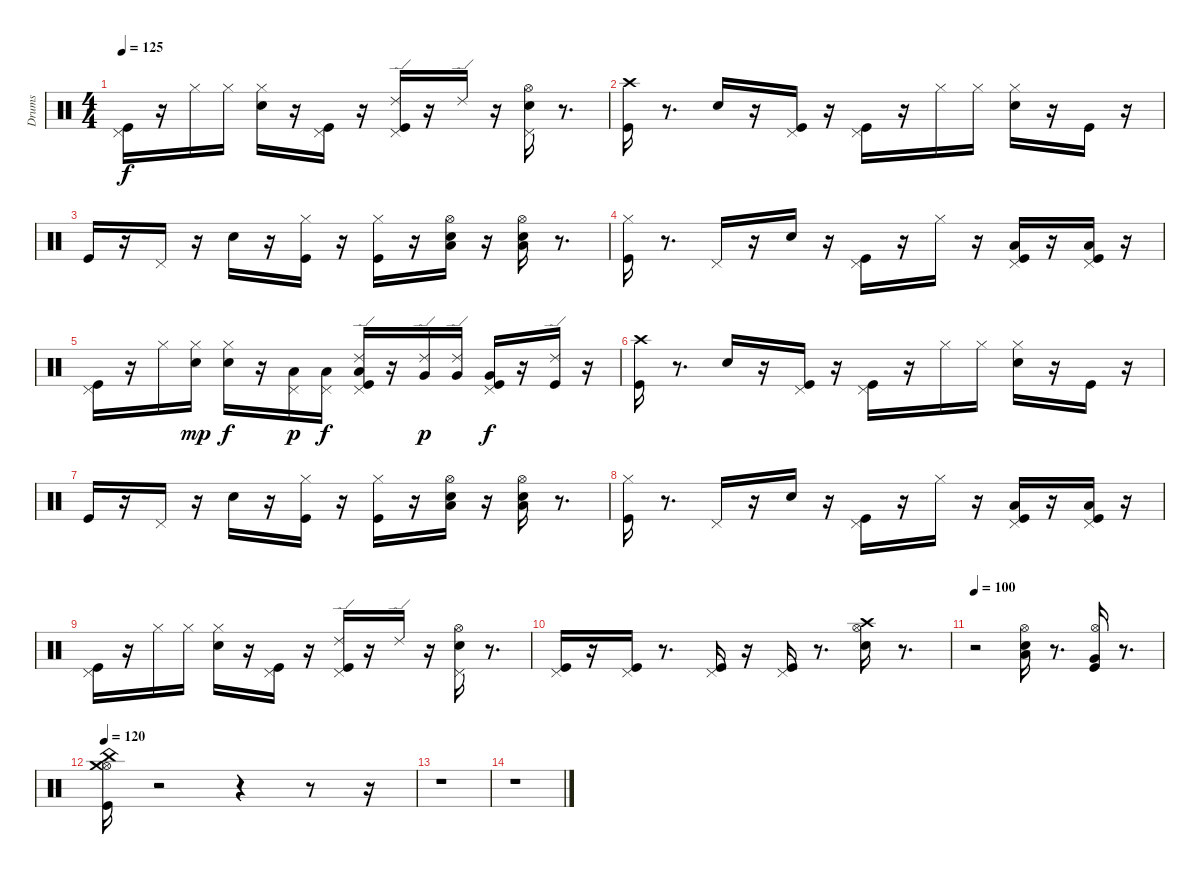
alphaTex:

\track ("Drums" "Drums") {instrument percussion}
\staff {score}
\articulation defaults
\ts (4 4)
\tempo 125
\clef neutral
\ks c
("Pedal Hi-Hat (hit)" "Kick (hit)").16{dy f} r.16 "Hi-Hat (closed)".16 "Hi-Hat (closed)".16 ("Electric Snare (hit)" "Hi-Hat (closed)").16 r.16 ("Pedal Hi-Hat (hit)" "Kick (hit)").16 r.16 ("Pedal Hi-Hat (hit)" "Kick (hit)" "Ride (edge) 2").16 r.16 "Ride (edge) 2".16 r.16 ("Hi-Hat (open)" "Pedal Hi-Hat (hit)" "Electric Snare (hit)").16 r.8{d} |
("Crash high (hit)" "Kick (hit)").16 r.8{d} "Electric Snare (hit)".16 r.16 ("Pedal Hi-Hat (hit)" "Kick (hit)").16 r.16 ("Pedal Hi-Hat (hit)" "Kick (hit)").16 r.16 "Hi-Hat (closed)".16 "Hi-Hat (closed)".16 ("Electric Snare (hit)" "Hi-Hat (closed)").16 r.16 "Kick (hit)".16 r.16 |
"Kick (hit)".16 r.16 "Pedal Hi-Hat (hit)".16 r.16 "Electric Snare (hit)".16 r.16 ("Kick (hit)" "Hi-Hat (closed)").16 r.16 ("Kick (hit)" "Hi-Hat (closed)").16 r.16 ("Hi-Hat (open)" "Low Tom (hit)" "Electric Snare (hit)").16 r.16 ("Hi-Hat (open)" "Low Tom (hit)" "Electric Snare (hit)").16 r.8{d} |
("Hi-Hat (closed)" "Kick (hit)").16 r.8{d} "Pedal Hi-Hat (hit)".16 r.16 "Electric Snare (hit)".16 r.16 ("Pedal Hi-Hat (hit)" "Kick (hit)").16 r.16 "Hi-Hat (closed)".16 r.16 ("Pedal Hi-Hat (hit)" "Kick (hit)" "Low Tom (hit)").16 r.16 ("Kick (hit)" "Pedal Hi-Hat (hit)" "Low Tom (hit)").16 r.16 |
("Pedal Hi-Hat (hit)" "Kick (hit)").16 r.16 "Hi-Hat (closed)".16 ("Electric Snare (hit)" "Hi-Hat (closed)").16{dy mp} ("Electric Snare (hit)" "Hi-Hat (closed)").16{dy f} r.16 ("Pedal Hi-Hat (hit)" "Low Tom (hit)").16{dy p} ("Pedal Hi-Hat (hit)" "Low Tom (hit)").16{dy f} ("Low Tom (hit)" "Pedal Hi-Hat (hit)" "Kick (hit)" "Ride (edge) 2").16 r.16 ("Very Low Tom (hit)" "Ride (edge) 2").16{dy p} ("Ride (edge) 2" "Very Low Tom (hit)").16 ("Kick (hit)" "Very Low Tom (hit)" "Pedal Hi-Hat (hit)").16{dy f} r.16 ("Ride (edge) 2" "Kick (hit)").16 r.16 |
("Crash high (hit)" "Kick (hit)").16 r.8{d} "Electric Snare (hit)".16 r.16 ("Pedal Hi-Hat (hit)" "Kick (hit)").16 r.16 ("Pedal Hi-Hat (hit)" "Kick (hit)").16 r.16 "Hi-Hat (closed)".16 "Hi-Hat (closed)".16 ("Electric Snare (hit)" "Hi-Hat (closed)").16 r.16 "Kick (hit)".16 r.16 |
"Kick (hit)".16 r.16 "Pedal Hi-Hat (hit)".16 r.16 "Electric Snare (hit)".16 r.16 ("Kick (hit)" "Hi-Hat (closed)").16 r.16 ("Kick (hit)" "Hi-Hat (closed)").16 r.16 ("Hi-Hat (open)" "Low Tom (hit)" "Electric Snare (hit)").16 r.16 ("Hi-Hat (open)" "Low Tom (hit)" "Electric Snare (hit)").16 r.8{d} |
("Hi-Hat (closed)" "Kick (hit)").16 r.8{d} "Pedal Hi-Hat (hit)".16 r.16 "Electric Snare (hit)".16 r.16 ("Pedal Hi-Hat (hit)" "Kick (hit)").16 r.16 "Hi-Hat (closed)".16 r.16 ("Pedal Hi-Hat (hit)" "Kick (hit)" "Low Tom (hit)").16 r.16 ("Kick (hit)" "Pedal Hi-Hat (hit)" "Low Tom (hit)").16 r.16 |
("Pedal Hi-Hat (hit)" "Kick (hit)").16 r.16 "Hi-Hat (closed)".16 "Hi-Hat (closed)".16 ("Electric Snare (hit)" "Hi-Hat (closed)").16 r.16 ("Pedal Hi-Hat (hit)" "Kick (hit)").16 r.16 ("Pedal Hi-Hat (hit)" "Kick (hit)" "Ride (edge) 2").16 r.16 "Ride (edge) 2".16 r.16 ("Hi-Hat (open)" "Pedal Hi-Hat (hit)" "Electric Snare (hit)").16 r.8{d} |
("Pedal Hi-Hat (hit)" "Kick (hit)").16 r.16 ("Pedal Hi-Hat (hit)" "Kick (hit)").16 r.8{d} ("Pedal Hi-Hat (hit)" "Kick (hit)").16 r.16 ("Pedal Hi-Hat (hit)" "Kick (hit)").16 r.8{d} ("Hi-Hat (open)" "Crash high (hit)" "Electric Snare (hit)").16 r.8{d} |
\tempo 100
r.2 ("Hi-Hat (open)" "Low Tom (hit)" "Electric Snare (hit)").16 r.8{d} ("Hi-Hat (open)" "Very Low Tom (hit)" "Kick (hit)").16 r.8{d} |
\tempo 120
("Kick (hit)" "Hi-Hat (open)" "Crash medium (hit)" "China (hit)").16 r.2 r.4 r.8 r.16 |
r.1 |
r.1
